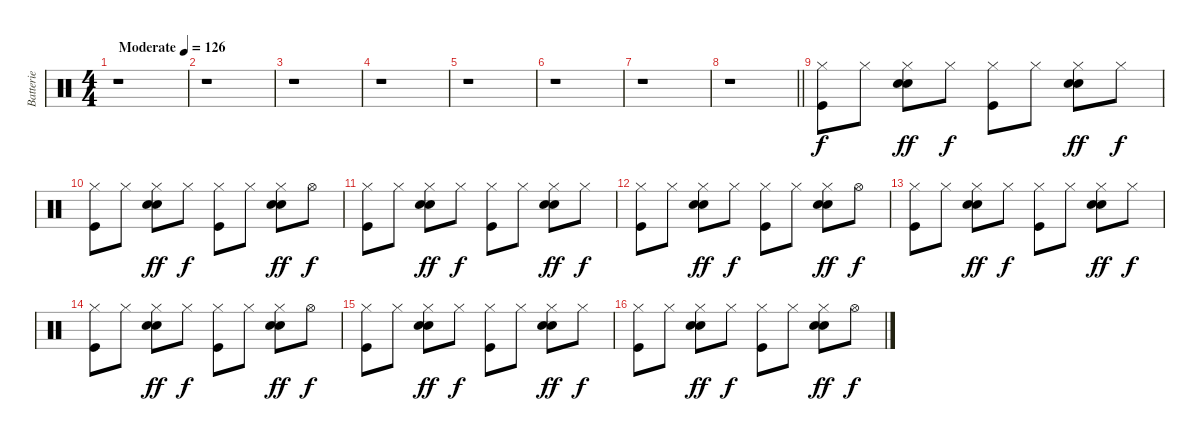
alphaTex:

\track ("Batterie" "Batterie") {instrument percussion}
\staff {score}
\articulation defaults
\ts (4 4)
\tempo (126 "Moderate")
\clef neutral
\ks c
r.1{dy f} |
r.1 |
r.1 |
r.1 |
r.1 |
r.1 |
r.1 |
\barLineRight lightlight
r.1 |
("Hi-Hat (closed)" "Kick (hit)").8 "Hi-Hat (closed)".8 ("Hi-Hat (closed)" "Hand Clap (hit)" "Snare (hit) 2").8{dy ff} "Hi-Hat (closed)".8{dy f} ("Hi-Hat (closed)" "Kick (hit)").8 "Hi-Hat (closed)".8 ("Hi-Hat (closed)" "Hand Clap (hit)" "Snare (hit) 2").8{dy ff} "Hi-Hat (closed)".8{dy f} |
("Hi-Hat (closed)" "Kick (hit)").8 "Hi-Hat (closed)".8 ("Hi-Hat (closed)" "Hand Clap (hit)" "Snare (hit) 2").8{dy ff} "Hi-Hat (closed)".8{dy f} ("Hi-Hat (closed)" "Kick (hit)").8 "Hi-Hat (closed)".8 ("Hi-Hat (closed)" "Hand Clap (hit)" "Snare (hit) 2").8{dy ff} "Hi-Hat (open)".8{dy f} |
("Hi-Hat (closed)" "Kick (hit)").8 "Hi-Hat (closed)".8 ("Hi-Hat (closed)" "Hand Clap (hit)" "Snare (hit) 2").8{dy ff} "Hi-Hat (closed)".8{dy f} ("Hi-Hat (closed)" "Kick (hit)").8 "Hi-Hat (closed)".8 ("Hi-Hat (closed)" "Hand Clap (hit)" "Snare (hit) 2").8{dy ff} "Hi-Hat (closed)".8{dy f} |
("Hi-Hat (closed)" "Kick (hit)").8 "Hi-Hat (closed)".8 ("Hi-Hat (closed)" "Hand Clap (hit)" "Snare (hit) 2").8{dy ff} "Hi-Hat (closed)".8{dy f} ("Hi-Hat (closed)" "Kick (hit)").8 "Hi-Hat (closed)".8 ("Hi-Hat (closed)" "Hand Clap (hit)" "Snare (hit) 2").8{dy ff} "Hi-Hat (open)".8{dy f} |
("Hi-Hat (closed)" "Kick (hit)").8 "Hi-Hat (closed)".8 ("Hi-Hat (closed)" "Hand Clap (hit)" "Snare (hit) 2").8{dy ff} "Hi-Hat (closed)".8{dy f} ("Hi-Hat (closed)" "Kick (hit)").8 "Hi-Hat (closed)".8 ("Hi-Hat (closed)" "Hand Clap (hit)" "Snare (hit) 2").8{dy ff} "Hi-Hat (closed)".8{dy f} |
("Hi-Hat (closed)" "Kick (hit)").8 "Hi-Hat (closed)".8 ("Hi-Hat (closed)" "Hand Clap (hit)" "Snare (hit) 2").8{dy ff} "Hi-Hat (closed)".8{dy f} ("Hi-Hat (closed)" "Kick (hit)").8 "Hi-Hat (closed)".8 ("Hi-Hat (closed)" "Hand Clap (hit)" "Snare (hit) 2").8{dy ff} "Hi-Hat (open)".8{dy f} |
("Hi-Hat (closed)" "Kick (hit)").8 "Hi-Hat (closed)".8 ("Hi-Hat (closed)" "Hand Clap (hit)" "Snare (hit) 2").8{dy ff} "Hi-Hat (closed)".8{dy f} ("Hi-Hat (closed)" "Kick (hit)").8 "Hi-Hat (closed)".8 ("Hi-Hat (closed)" "Hand Clap (hit)" "Snare (hit) 2").8{dy ff} "Hi-Hat (closed)".8{dy f} |
("Hi-Hat (closed)" "Kick (hit)").8 "Hi-Hat (closed)".8 ("Hi-Hat (closed)" "Hand Clap (hit)" "Snare (hit) 2").8{dy ff} "Hi-Hat (closed)".8{dy f} ("Hi-Hat (closed)" "Kick (hit)").8 "Hi-Hat (closed)".8 ("Hi-Hat (closed)" "Hand Clap (hit)" "Snare (hit) 2").8{dy ff} "Hi-Hat (open)".8{dy f}
